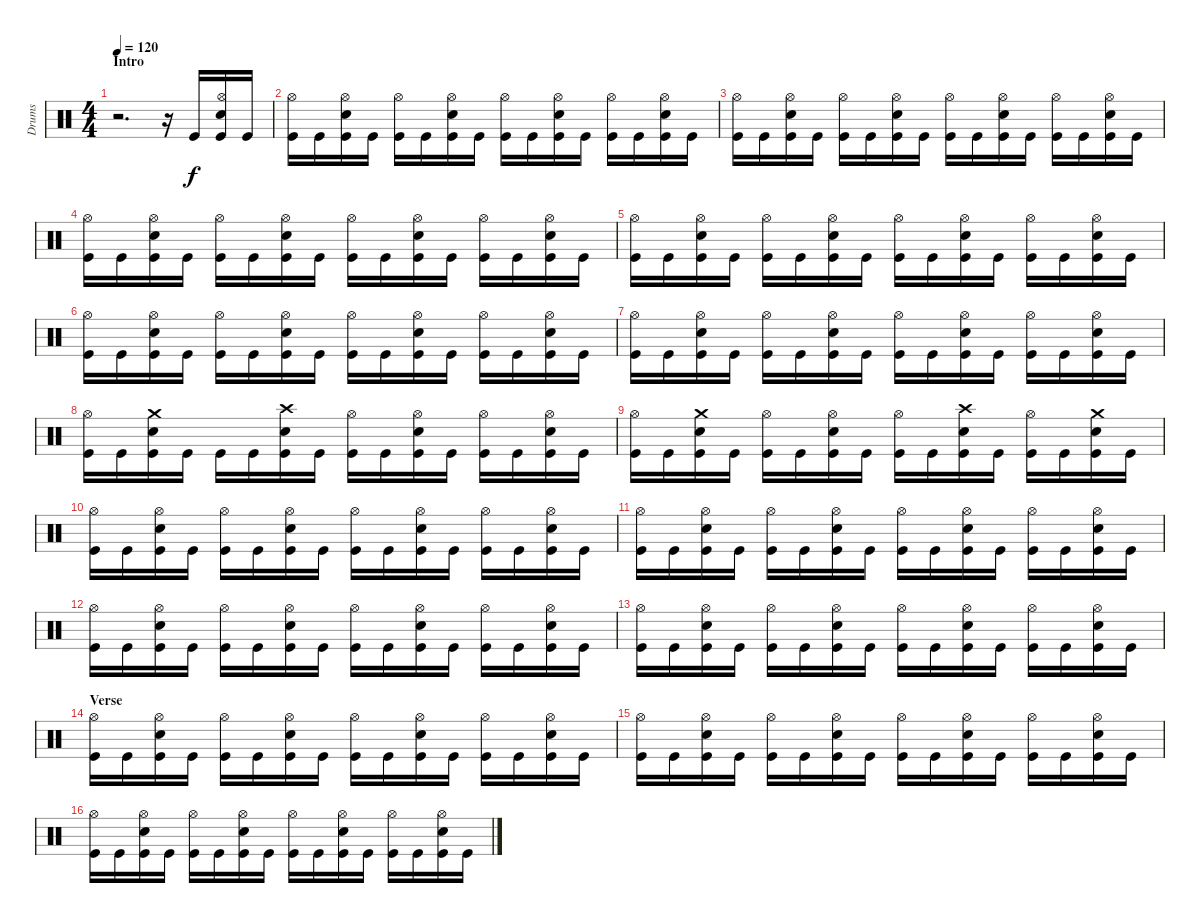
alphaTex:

\track ("Drums" "Drums") {instrument percussion}
\staff {score}
\articulation defaults
\ts (4 4)
\section ("" "Intro")
\tempo 120
\clef neutral
\ks c
r.2{d dy f} r.16 "Kick (hit)".16 ("Hi-Hat (open)" "Snare (hit) 2" "Kick (hit)").16 "Kick (hit)".16 |
("Hi-Hat (open)" "Kick (hit)").16 "Kick (hit)".16 ("Hi-Hat (open)" "Snare (hit) 2" "Kick (hit)").16 "Kick (hit)".16 ("Hi-Hat (open)" "Kick (hit)").16 "Kick (hit)".16 ("Hi-Hat (open)" "Snare (hit) 2" "Kick (hit)").16 "Kick (hit)".16 ("Hi-Hat (open)" "Kick (hit)").16 "Kick (hit)".16 ("Hi-Hat (open)" "Snare (hit) 2" "Kick (hit)").16 "Kick (hit)".16 ("Hi-Hat (open)" "Kick (hit)").16 "Kick (hit)".16 ("Hi-Hat (open)" "Snare (hit) 2" "Kick (hit)").16 "Kick (hit)".16 |
("Hi-Hat (open)" "Kick (hit)").16 "Kick (hit)".16 ("Hi-Hat (open)" "Snare (hit) 2" "Kick (hit)").16 "Kick (hit)".16 ("Hi-Hat (open)" "Kick (hit)").16 "Kick (hit)".16 ("Hi-Hat (open)" "Snare (hit) 2" "Kick (hit)").16 "Kick (hit)".16 ("Hi-Hat (open)" "Kick (hit)").16 "Kick (hit)".16 ("Hi-Hat (open)" "Snare (hit) 2" "Kick (hit)").16 "Kick (hit)".16 ("Hi-Hat (open)" "Kick (hit)").16 "Kick (hit)".16 ("Hi-Hat (open)" "Snare (hit) 2" "Kick (hit)").16 "Kick (hit)".16 |
("Hi-Hat (open)" "Kick (hit)").16 "Kick (hit)".16 ("Hi-Hat (open)" "Snare (hit) 2" "Kick (hit)").16 "Kick (hit)".16 ("Hi-Hat (open)" "Kick (hit)").16 "Kick (hit)".16 ("Hi-Hat (open)" "Snare (hit) 2" "Kick (hit)").16 "Kick (hit)".16 ("Hi-Hat (open)" "Kick (hit)").16 "Kick (hit)".16 ("Hi-Hat (open)" "Snare (hit) 2" "Kick (hit)").16 "Kick (hit)".16 ("Hi-Hat (open)" "Kick (hit)").16 "Kick (hit)".16 ("Hi-Hat (open)" "Snare (hit) 2" "Kick (hit)").16 "Kick (hit)".16 |
("Hi-Hat (open)" "Kick (hit)").16 "Kick (hit)".16 ("Hi-Hat (open)" "Snare (hit) 2" "Kick (hit)").16 "Kick (hit)".16 ("Hi-Hat (open)" "Kick (hit)").16 "Kick (hit)".16 ("Hi-Hat (open)" "Snare (hit) 2" "Kick (hit)").16 "Kick (hit)".16 ("Hi-Hat (open)" "Kick (hit)").16 "Kick (hit)".16 ("Hi-Hat (open)" "Snare (hit) 2" "Kick (hit)").16 "Kick (hit)".16 ("Hi-Hat (open)" "Kick (hit)").16 "Kick (hit)".16 ("Hi-Hat (open)" "Snare (hit) 2" "Kick (hit)").16 "Kick (hit)".16 |
("Hi-Hat (open)" "Kick (hit)").16 "Kick (hit)".16 ("Hi-Hat (open)" "Snare (hit) 2" "Kick (hit)").16 "Kick (hit)".16 ("Hi-Hat (open)" "Kick (hit)").16 "Kick (hit)".16 ("Hi-Hat (open)" "Snare (hit) 2" "Kick (hit)").16 "Kick (hit)".16 ("Hi-Hat (open)" "Kick (hit)").16 "Kick (hit)".16 ("Hi-Hat (open)" "Snare (hit) 2" "Kick (hit)").16 "Kick (hit)".16 ("Hi-Hat (open)" "Kick (hit)").16 "Kick (hit)".16 ("Hi-Hat (open)" "Snare (hit) 2" "Kick (hit)").16 "Kick (hit)".16 |
("Hi-Hat (open)" "Kick (hit)").16 "Kick (hit)".16 ("Hi-Hat (open)" "Snare (hit) 2" "Kick (hit)").16 "Kick (hit)".16 ("Hi-Hat (open)" "Kick (hit)").16 "Kick (hit)".16 ("Hi-Hat (open)" "Snare (hit) 2" "Kick (hit)").16 "Kick (hit)".16 ("Hi-Hat (open)" "Kick (hit)").16 "Kick (hit)".16 ("Hi-Hat (open)" "Snare (hit) 2" "Kick (hit)").16 "Kick (hit)".16 ("Hi-Hat (open)" "Kick (hit)").16 "Kick (hit)".16 ("Hi-Hat (open)" "Snare (hit) 2" "Kick (hit)").16 "Kick (hit)".16 |
("Hi-Hat (open)" "Kick (hit)").16 "Kick (hit)".16 ("Crash medium (hit)" "Snare (hit) 2" "Kick (hit)").16 "Kick (hit)".16 "Kick (hit)".16 "Kick (hit)".16 ("Crash high (hit)" "Snare (hit) 2" "Kick (hit)").16 "Kick (hit)".16 ("Hi-Hat (open)" "Kick (hit)").16 "Kick (hit)".16 ("Hi-Hat (open)" "Snare (hit) 2" "Kick (hit)").16 "Kick (hit)".16 ("Hi-Hat (open)" "Kick (hit)").16 "Kick (hit)".16 ("Hi-Hat (open)" "Snare (hit) 2" "Kick (hit)").16 "Kick (hit)".16 |
("Hi-Hat (open)" "Kick (hit)").16 "Kick (hit)".16 ("Crash medium (hit)" "Snare (hit) 2" "Kick (hit)").16 "Kick (hit)".16 ("Hi-Hat (open)" "Kick (hit)").16 "Kick (hit)".16 ("Hi-Hat (open)" "Snare (hit) 2" "Kick (hit)").16 "Kick (hit)".16 ("Hi-Hat (open)" "Kick (hit)").16 "Kick (hit)".16 ("Crash high (hit)" "Snare (hit) 2" "Kick (hit)").16 "Kick (hit)".16 ("Hi-Hat (open)" "Kick (hit)").16 "Kick (hit)".16 ("Crash medium (hit)" "Snare (hit) 2" "Kick (hit)").16 "Kick (hit)".16 |
("Hi-Hat (open)" "Kick (hit)").16 "Kick (hit)".16 ("Hi-Hat (open)" "Snare (hit) 2" "Kick (hit)").16 "Kick (hit)".16 ("Hi-Hat (open)" "Kick (hit)").16 "Kick (hit)".16 ("Hi-Hat (open)" "Snare (hit) 2" "Kick (hit)").16 "Kick (hit)".16 ("Hi-Hat (open)" "Kick (hit)").16 "Kick (hit)".16 ("Hi-Hat (open)" "Snare (hit) 2" "Kick (hit)").16 "Kick (hit)".16 ("Hi-Hat (open)" "Kick (hit)").16 "Kick (hit)".16 ("Hi-Hat (open)" "Snare (hit) 2" "Kick (hit)").16 "Kick (hit)".16 |
("Hi-Hat (open)" "Kick (hit)").16 "Kick (hit)".16 ("Hi-Hat (open)" "Snare (hit) 2" "Kick (hit)").16 "Kick (hit)".16 ("Hi-Hat (open)" "Kick (hit)").16 "Kick (hit)".16 ("Hi-Hat (open)" "Snare (hit) 2" "Kick (hit)").16 "Kick (hit)".16 ("Hi-Hat (open)" "Kick (hit)").16 "Kick (hit)".16 ("Hi-Hat (open)" "Snare (hit) 2" "Kick (hit)").16 "Kick (hit)".16 ("Hi-Hat (open)" "Kick (hit)").16 "Kick (hit)".16 ("Hi-Hat (open)" "Snare (hit) 2" "Kick (hit)").16 "Kick (hit)".16 |
("Hi-Hat (open)" "Kick (hit)").16 "Kick (hit)".16 ("Hi-Hat (open)" "Snare (hit) 2" "Kick (hit)").16 "Kick (hit)".16 ("Hi-Hat (open)" "Kick (hit)").16 "Kick (hit)".16 ("Hi-Hat (open)" "Snare (hit) 2" "Kick (hit)").16 "Kick (hit)".16 ("Hi-Hat (open)" "Kick (hit)").16 "Kick (hit)".16 ("Hi-Hat (open)" "Snare (hit) 2" "Kick (hit)").16 "Kick (hit)".16 ("Hi-Hat (open)" "Kick (hit)").16 "Kick (hit)".16 ("Hi-Hat (open)" "Snare (hit) 2" "Kick (hit)").16 "Kick (hit)".16 |
("Hi-Hat (open)" "Kick (hit)").16 "Kick (hit)".16 ("Hi-Hat (open)" "Snare (hit) 2" "Kick (hit)").16 "Kick (hit)".16 ("Hi-Hat (open)" "Kick (hit)").16 "Kick (hit)".16 ("Hi-Hat (open)" "Snare (hit) 2" "Kick (hit)").16 "Kick (hit)".16 ("Hi-Hat (open)" "Kick (hit)").16 "Kick (hit)".16 ("Hi-Hat (open)" "Snare (hit) 2" "Kick (hit)").16 "Kick (hit)".16 ("Hi-Hat (open)" "Kick (hit)").16 "Kick (hit)".16 ("Hi-Hat (open)" "Snare (hit) 2" "Kick (hit)").16 "Kick (hit)".16 |
\section ("" "Verse")
("Hi-Hat (open)" "Kick (hit)").16 "Kick (hit)".16 ("Hi-Hat (open)" "Snare (hit) 2" "Kick (hit)").16 "Kick (hit)".16 ("Hi-Hat (open)" "Kick (hit)").16 "Kick (hit)".16 ("Hi-Hat (open)" "Snare (hit) 2" "Kick (hit)").16 "Kick (hit)".16 ("Hi-Hat (open)" "Kick (hit)").16 "Kick (hit)".16 ("Hi-Hat (open)" "Snare (hit) 2" "Kick (hit)").16 "Kick (hit)".16 ("Hi-Hat (open)" "Kick (hit)").16 "Kick (hit)".16 ("Hi-Hat (open)" "Snare (hit) 2" "Kick (hit)").16 "Kick (hit)".16 |
("Hi-Hat (open)" "Kick (hit)").16 "Kick (hit)".16 ("Hi-Hat (open)" "Snare (hit) 2" "Kick (hit)").16 "Kick (hit)".16 ("Hi-Hat (open)" "Kick (hit)").16 "Kick (hit)".16 ("Hi-Hat (open)" "Snare (hit) 2" "Kick (hit)").16 "Kick (hit)".16 ("Hi-Hat (open)" "Kick (hit)").16 "Kick (hit)".16 ("Hi-Hat (open)" "Snare (hit) 2" "Kick (hit)").16 "Kick (hit)".16 ("Hi-Hat (open)" "Kick (hit)").16 "Kick (hit)".16 ("Hi-Hat (open)" "Snare (hit) 2" "Kick (hit)").16 "Kick (hit)".16 |
("Hi-Hat (open)" "Kick (hit)").16 "Kick (hit)".16 ("Hi-Hat (open)" "Snare (hit) 2" "Kick (hit)").16 "Kick (hit)".16 ("Hi-Hat (open)" "Kick (hit)").16 "Kick (hit)".16 ("Hi-Hat (open)" "Snare (hit) 2" "Kick (hit)").16 "Kick (hit)".16 ("Hi-Hat (open)" "Kick (hit)").16 "Kick (hit)".16 ("Hi-Hat (open)" "Snare (hit) 2" "Kick (hit)").16 "Kick (hit)".16 ("Hi-Hat (open)" "Kick (hit)").16 "Kick (hit)".16 ("Hi-Hat (open)" "Snare (hit) 2" "Kick (hit)").16 "Kick (hit)".16
